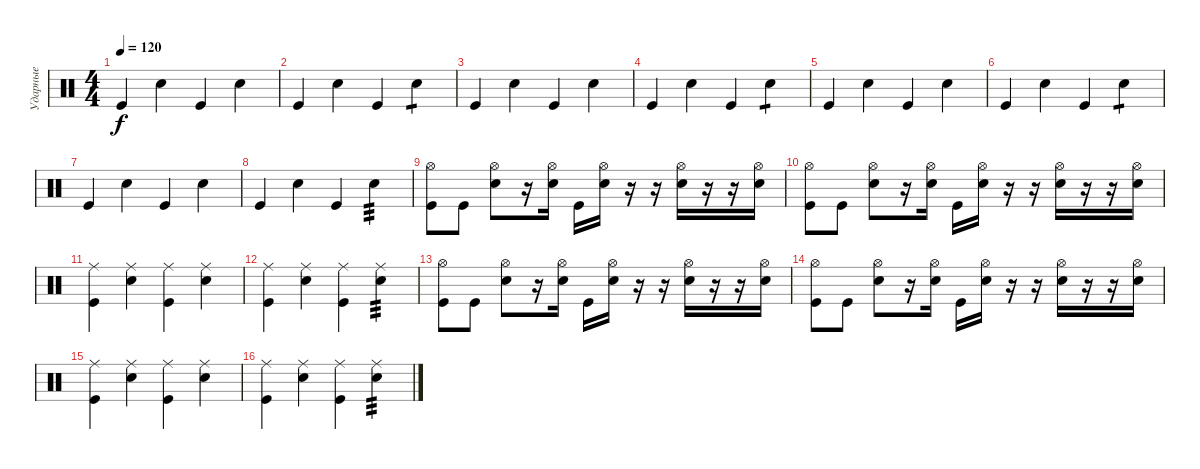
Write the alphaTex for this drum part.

\track ("Ударные" "Ударные") {instrument percussion}
\staff {score}
\articulation defaults
\ts (4 4)
\tempo 120
\clef neutral
\ks c "Kick (hit)".4{dy f} "Snare (hit) 2".4 "Kick (hit)".4 "Snare (hit) 2".4
|
"Kick (hit)".4 "Snare (hit) 2".4 "Kick (hit)".4 "Snare (hit) 2".4{tp 1} |
"Kick (hit)".4 "Snare (hit) 2".4 "Kick (hit)".4 "Snare (hit) 2".4 |
"Kick (hit)".4 "Snare (hit) 2".4 "Kick (hit)".4 "Snare (hit) 2".4{tp 1} |
"Kick (hit)".4 "Snare (hit) 2".4 "Kick (hit)".4 "Snare (hit) 2".4 |
"Kick (hit)".4 "Snare (hit) 2".4 "Kick (hit)".4 "Snare (hit) 2".4{tp 1} |
"Kick (hit)".4 "Snare (hit) 2".4 "Kick (hit)".4 "Snare (hit) 2".4 |
"Kick (hit)".4 "Snare (hit) 2".4 "Kick (hit)".4 "Snare (hit) 2".4{tp 3} |
("Hi-Hat (open)" "Kick (hit)").8 "Kick (hit)".8 ("Hi-Hat (open)" "Snare (hit) 2").8 r.16 ("Hi-Hat (open)" "Snare (hit) 2").16 "Kick (hit)".16 ("Hi-Hat (open)" "Snare (hit) 2").16 r.16 r.16 ("Hi-Hat (open)" "Snare (hit) 2").16 r.16 r.16 ("Hi-Hat (open)" "Snare (hit) 2").16 |
("Hi-Hat (open)" "Kick (hit)").8 "Kick (hit)".8 ("Hi-Hat (open)" "Snare (hit) 2").8 r.16 ("Hi-Hat (open)" "Snare (hit) 2").16 "Kick (hit)".16 ("Hi-Hat (open)" "Snare (hit) 2").16 r.16 r.16 ("Hi-Hat (open)" "Snare (hit) 2").16 r.16 r.16 ("Hi-Hat (open)" "Snare (hit) 2").16 |
("Ride (middle)" "Kick (hit)").4 ("Ride (middle)" "Snare (hit) 2").4 ("Ride (middle)" "Kick (hit)").4 ("Ride (middle)" "Snare (hit) 2").4 |
("Ride (middle)" "Kick (hit)").4 ("Ride (middle)" "Snare (hit) 2").4 ("Ride (middle)" "Kick (hit)").4 ("Ride (middle)" "Snare (hit) 2").4{tp 3} |
("Hi-Hat (open)" "Kick (hit)").8 "Kick (hit)".8 ("Hi-Hat (open)" "Snare (hit) 2").8 r.16 ("Hi-Hat (open)" "Snare (hit) 2").16 "Kick (hit)".16 ("Hi-Hat (open)" "Snare (hit) 2").16 r.16 r.16 ("Hi-Hat (open)" "Snare (hit) 2").16 r.16 r.16 ("Hi-Hat (open)" "Snare (hit) 2").16 |
("Hi-Hat (open)" "Kick (hit)").8 "Kick (hit)".8 ("Hi-Hat (open)" "Snare (hit) 2").8 r.16 ("Hi-Hat (open)" "Snare (hit) 2").16 "Kick (hit)".16 ("Hi-Hat (open)" "Snare (hit) 2").16 r.16 r.16 ("Hi-Hat (open)" "Snare (hit) 2").16 r.16 r.16 ("Hi-Hat (open)" "Snare (hit) 2").16 |
("Ride (middle)" "Kick (hit)").4 ("Ride (middle)" "Snare (hit) 2").4 ("Ride (middle)" "Kick (hit)").4 ("Ride (middle)" "Snare (hit) 2").4 |
("Ride (middle)" "Kick (hit)").4 ("Ride (middle)" "Snare (hit) 2").4 ("Ride (middle)" "Kick (hit)").4 ("Ride (middle)" "Snare (hit) 2").4{tp 3}
